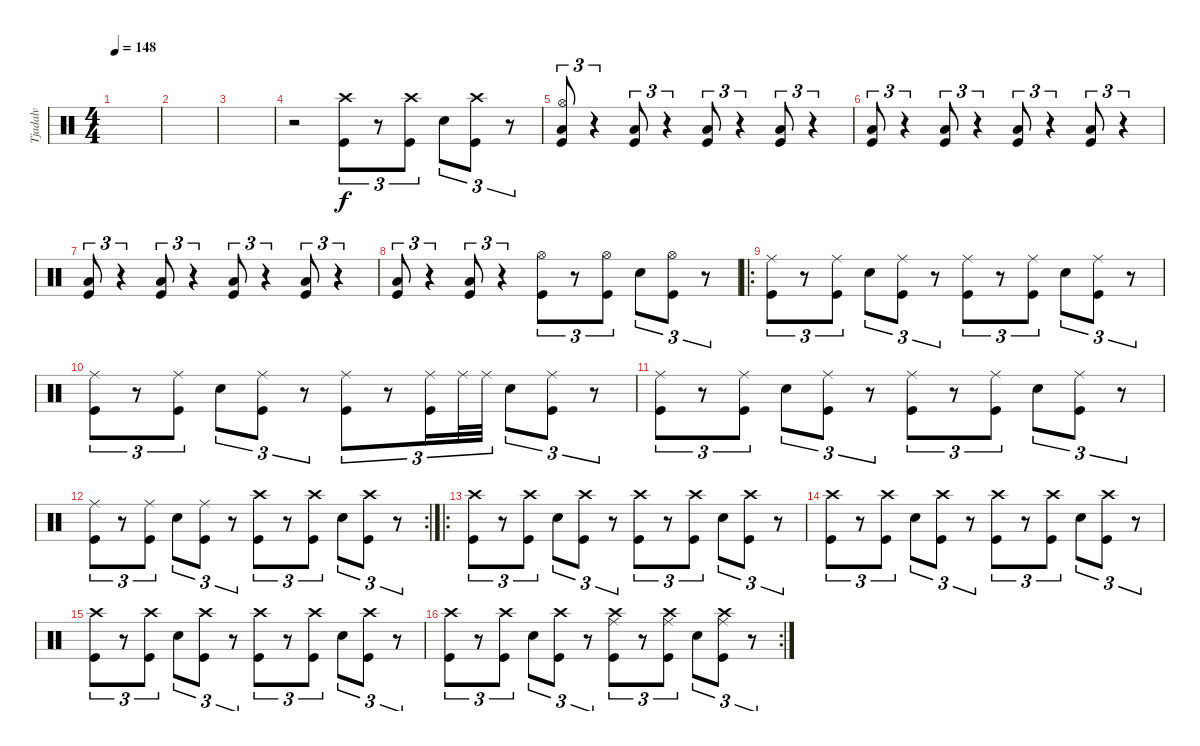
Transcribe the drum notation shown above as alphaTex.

\track ("Tjadalv    ( Drum )" "Tjadalv   ") {instrument percussion}
\staff {score}
\articulation defaults
\ts (4 4)
\tempo 148
\clef neutral
\ks c
|
|
|
r.2 ("Crash high (hit)" "Kick (hit)").8{tu (3 2)} r.8{tu (3 2)} ("Crash high (hit)" "Kick (hit)").8{tu (3 2)} "Electric Snare (hit)".8{tu (3 2)} ("Crash high (hit)" "Kick (hit)").8{tu (3 2)} r.8{tu (3 2)} |
("Hi-Hat (open)" "Low Tom (hit)" "Kick (hit)").8{tu (3 2)} r.4{tu (3 2)} ("Low Tom (hit)" "Kick (hit)").8{tu (3 2)} r.4{tu (3 2)} ("Low Tom (hit)" "Kick (hit)").8{tu (3 2)} r.4{tu (3 2)} ("Low Tom (hit)" "Kick (hit)").8{tu (3 2)} r.4{tu (3 2)} |
("Low Tom (hit)" "Kick (hit)").8{tu (3 2)} r.4{tu (3 2)} ("Low Tom (hit)" "Kick (hit)").8{tu (3 2)} r.4{tu (3 2)} ("Low Tom (hit)" "Kick (hit)").8{tu (3 2)} r.4{tu (3 2)} ("Low Tom (hit)" "Kick (hit)").8{tu (3 2)} r.4{tu (3 2)} |
("Low Tom (hit)" "Kick (hit)").8{tu (3 2)} r.4{tu (3 2)} ("Low Tom (hit)" "Kick (hit)").8{tu (3 2)} r.4{tu (3 2)} ("Low Tom (hit)" "Kick (hit)").8{tu (3 2)} r.4{tu (3 2)} ("Low Tom (hit)" "Kick (hit)").8{tu (3 2)} r.4{tu (3 2)} |
("Low Tom (hit)" "Kick (hit)").8{tu (3 2)} r.4{tu (3 2)} ("Low Tom (hit)" "Kick (hit)").8{tu (3 2)} r.4{tu (3 2)} ("Hi-Hat (open)" "Kick (hit)").8{tu (3 2)} r.8{tu (3 2)} ("Hi-Hat (open)" "Kick (hit)").8{tu (3 2)} "Electric Snare (hit)".8{tu (3 2)} ("Hi-Hat (open)" "Kick (hit)").8{tu (3 2)} r.8{tu (3 2)} |
\ro
("Ride (middle)" "Kick (hit)").8{tu (3 2)} r.8{tu (3 2)} ("Ride (middle)" "Kick (hit)").8{tu (3 2)} "Electric Snare (hit)".8{tu (3 2)} ("Ride (middle)" "Kick (hit)").8{tu (3 2)} r.8{tu (3 2)} ("Ride (middle)" "Kick (hit)").8{tu (3 2)} r.8{tu (3 2)} ("Ride (middle)" "Kick (hit)").8{tu (3 2)} "Electric Snare (hit)".8{tu (3 2)} ("Ride (middle)" "Kick (hit)").8{tu (3 2)} r.8{tu (3 2)} |
("Ride (middle)" "Kick (hit)").8{tu (3 2)} r.8{tu (3 2)} ("Ride (middle)" "Kick (hit)").8{tu (3 2)} "Electric Snare (hit)".8{tu (3 2)} ("Ride (middle)" "Kick (hit)").8{tu (3 2)} r.8{tu (3 2)} ("Ride (middle)" "Kick (hit)").8{tu (3 2)} r.8{tu (3 2)} ("Ride (middle)" "Kick (hit)").16{tu (3 2)} "Ride (middle)".32{tu (3 2)} "Ride (middle)".32{tu (3 2)} "Electric Snare (hit)".8{tu (3 2)} ("Ride (middle)" "Kick (hit)").8{tu (3 2)} r.8{tu (3 2)} |
("Ride (middle)" "Kick (hit)").8{tu (3 2)} r.8{tu (3 2)} ("Ride (middle)" "Kick (hit)").8{tu (3 2)} "Electric Snare (hit)".8{tu (3 2)} ("Ride (middle)" "Kick (hit)").8{tu (3 2)} r.8{tu (3 2)} ("Ride (middle)" "Kick (hit)").8{tu (3 2)} r.8{tu (3 2)} ("Ride (middle)" "Kick (hit)").8{tu (3 2)} "Electric Snare (hit)".8{tu (3 2)} ("Ride (middle)" "Kick (hit)").8{tu (3 2)} r.8{tu (3 2)} |
\rc 2
("Ride (middle)" "Kick (hit)").8{tu (3 2)} r.8{tu (3 2)} ("Ride (middle)" "Kick (hit)").8{tu (3 2)} "Electric Snare (hit)".8{tu (3 2)} ("Ride (middle)" "Kick (hit)").8{tu (3 2)} r.8{tu (3 2)} ("Crash high (hit)" "Kick (hit)").8{tu (3 2)} r.8{tu (3 2)} ("Crash high (hit)" "Kick (hit)").8{tu (3 2)} "Electric Snare (hit)".8{tu (3 2)} ("Crash high (hit)" "Kick (hit)").8{tu (3 2)} r.8{tu (3 2)} |
\ro
("Crash high (hit)" "Kick (hit)").8{tu (3 2)} r.8{tu (3 2)} ("Crash high (hit)" "Kick (hit)").8{tu (3 2)} "Electric Snare (hit)".8{tu (3 2)} ("Crash high (hit)" "Kick (hit)").8{tu (3 2)} r.8{tu (3 2)} ("Crash high (hit)" "Kick (hit)").8{tu (3 2)} r.8{tu (3 2)} ("Crash high (hit)" "Kick (hit)").8{tu (3 2)} "Electric Snare (hit)".8{tu (3 2)} ("Crash high (hit)" "Kick (hit)").8{tu (3 2)} r.8{tu (3 2)} |
("Crash high (hit)" "Kick (hit)").8{tu (3 2)} r.8{tu (3 2)} ("Crash high (hit)" "Kick (hit)").8{tu (3 2)} "Electric Snare (hit)".8{tu (3 2)} ("Crash high (hit)" "Kick (hit)").8{tu (3 2)} r.8{tu (3 2)} ("Crash high (hit)" "Kick (hit)").8{tu (3 2)} r.8{tu (3 2)} ("Crash high (hit)" "Kick (hit)").8{tu (3 2)} "Electric Snare (hit)".8{tu (3 2)} ("Crash high (hit)" "Kick (hit)").8{tu (3 2)} r.8{tu (3 2)} |
("Crash high (hit)" "Kick (hit)").8{tu (3 2)} r.8{tu (3 2)} ("Crash high (hit)" "Kick (hit)").8{tu (3 2)} "Electric Snare (hit)".8{tu (3 2)} ("Crash high (hit)" "Kick (hit)").8{tu (3 2)} r.8{tu (3 2)} ("Crash high (hit)" "Kick (hit)").8{tu (3 2)} r.8{tu (3 2)} ("Crash high (hit)" "Kick (hit)").8{tu (3 2)} "Electric Snare (hit)".8{tu (3 2)} ("Crash high (hit)" "Kick (hit)").8{tu (3 2)} r.8{tu (3 2)} |
\rc 2
("Crash high (hit)" "Kick (hit)").8{tu (3 2)} r.8{tu (3 2)} ("Crash high (hit)" "Kick (hit)").8{tu (3 2)} "Electric Snare (hit)".8{tu (3 2)} ("Crash high (hit)" "Kick (hit)").8{tu (3 2)} r.8{tu (3 2)} ("Crash high (hit)" "Ride (middle)" "Kick (hit)").8{tu (3 2)} r.8{tu (3 2)} ("Crash high (hit)" "Ride (middle)" "Kick (hit)").8{tu (3 2)} "Electric Snare (hit)".8{tu (3 2)} ("Crash high (hit)" "Ride (middle)" "Kick (hit)").8{tu (3 2)} r.8{tu (3 2)}
